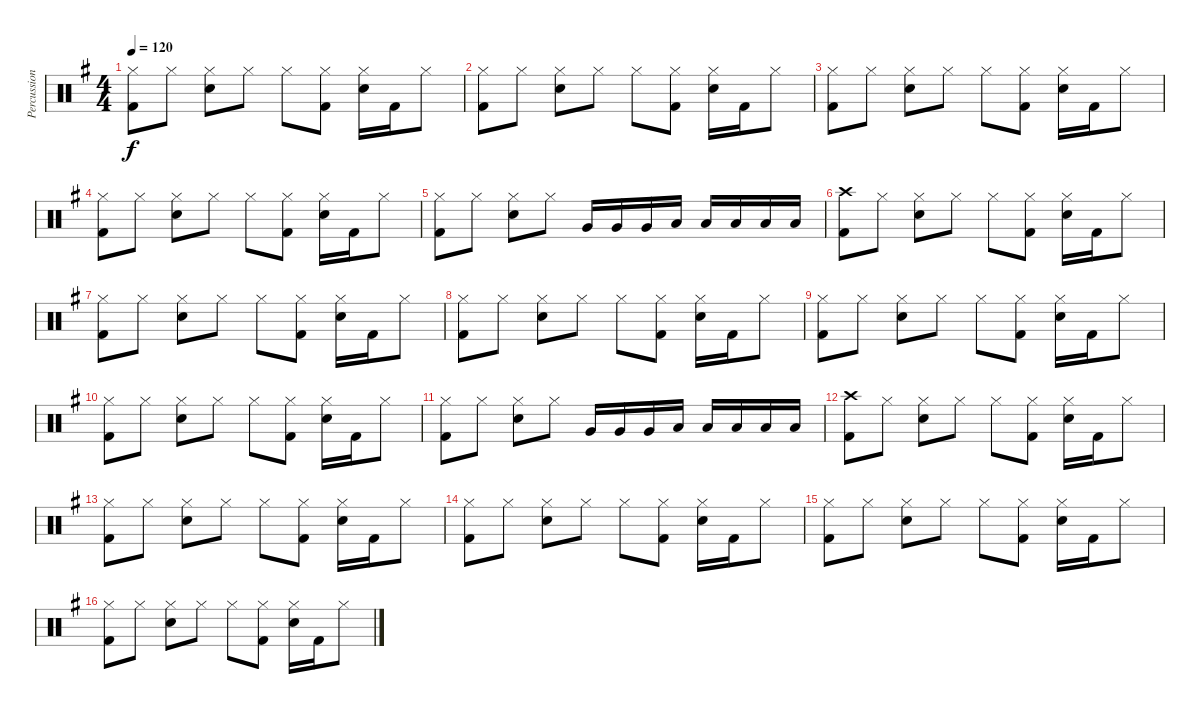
\track ("Percussions" "Percussion") {instrument percussion}
\staff {score}
\articulation defaults
\ts (4 4)
\tempo 120
\clef neutral
\ks eminor
("Hi-Hat (closed)" "Kick (hit) 2").8{dy f} "Hi-Hat (closed)".8 ("Hi-Hat (closed)" "Snare (hit) 2").8 "Hi-Hat (closed)".8 "Hi-Hat (closed)".8 ("Hi-Hat (closed)" "Kick (hit) 2").8 ("Hi-Hat (closed)" "Snare (hit) 2").16 "Kick (hit) 2".16 "Hi-Hat (closed)".8 |
("Hi-Hat (closed)" "Kick (hit) 2").8 "Hi-Hat (closed)".8 ("Hi-Hat (closed)" "Snare (hit) 2").8 "Hi-Hat (closed)".8 "Hi-Hat (closed)".8 ("Hi-Hat (closed)" "Kick (hit) 2").8 ("Hi-Hat (closed)" "Snare (hit) 2").16 "Kick (hit) 2".16 "Hi-Hat (closed)".8 |
("Hi-Hat (closed)" "Kick (hit) 2").8 "Hi-Hat (closed)".8 ("Hi-Hat (closed)" "Snare (hit) 2").8 "Hi-Hat (closed)".8 "Hi-Hat (closed)".8 ("Hi-Hat (closed)" "Kick (hit) 2").8 ("Hi-Hat (closed)" "Snare (hit) 2").16 "Kick (hit) 2".16 "Hi-Hat (closed)".8 |
("Hi-Hat (closed)" "Kick (hit) 2").8 "Hi-Hat (closed)".8 ("Hi-Hat (closed)" "Snare (hit) 2").8 "Hi-Hat (closed)".8 "Hi-Hat (closed)".8 ("Hi-Hat (closed)" "Kick (hit) 2").8 ("Hi-Hat (closed)" "Snare (hit) 2").16 "Kick (hit) 2".16 "Hi-Hat (closed)".8 |
("Hi-Hat (closed)" "Kick (hit) 2").8 "Hi-Hat (closed)".8 ("Hi-Hat (closed)" "Snare (hit) 2").8 "Hi-Hat (closed)".8 "Very Low Tom (hit)".16 "Very Low Tom (hit)".16 "Very Low Tom (hit)".16 "Low Tom (hit)".16 "Low Tom (hit)".16 "Low Tom (hit)".16 "Low Floor Tom (hit)".16 "Low Floor Tom (hit)".16 |
("Crash high (hit)" "Kick (hit) 2").8 "Hi-Hat (closed)".8 ("Hi-Hat (closed)" "Snare (hit) 2").8 "Hi-Hat (closed)".8 "Hi-Hat (closed)".8 ("Hi-Hat (closed)" "Kick (hit) 2").8 ("Hi-Hat (closed)" "Snare (hit) 2").16 "Kick (hit) 2".16 "Hi-Hat (closed)".8 |
("Hi-Hat (closed)" "Kick (hit) 2").8 "Hi-Hat (closed)".8 ("Hi-Hat (closed)" "Snare (hit) 2").8 "Hi-Hat (closed)".8 "Hi-Hat (closed)".8 ("Hi-Hat (closed)" "Kick (hit) 2").8 ("Hi-Hat (closed)" "Snare (hit) 2").16 "Kick (hit) 2".16 "Hi-Hat (closed)".8 |
("Hi-Hat (closed)" "Kick (hit) 2").8 "Hi-Hat (closed)".8 ("Hi-Hat (closed)" "Snare (hit) 2").8 "Hi-Hat (closed)".8 "Hi-Hat (closed)".8 ("Hi-Hat (closed)" "Kick (hit) 2").8 ("Hi-Hat (closed)" "Snare (hit) 2").16 "Kick (hit) 2".16 "Hi-Hat (closed)".8 |
("Hi-Hat (closed)" "Kick (hit) 2").8 "Hi-Hat (closed)".8 ("Hi-Hat (closed)" "Snare (hit) 2").8 "Hi-Hat (closed)".8 "Hi-Hat (closed)".8 ("Hi-Hat (closed)" "Kick (hit) 2").8 ("Hi-Hat (closed)" "Snare (hit) 2").16 "Kick (hit) 2".16 "Hi-Hat (closed)".8 |
("Hi-Hat (closed)" "Kick (hit) 2").8 "Hi-Hat (closed)".8 ("Hi-Hat (closed)" "Snare (hit) 2").8 "Hi-Hat (closed)".8 "Hi-Hat (closed)".8 ("Hi-Hat (closed)" "Kick (hit) 2").8 ("Hi-Hat (closed)" "Snare (hit) 2").16 "Kick (hit) 2".16 "Hi-Hat (closed)".8 |
("Hi-Hat (closed)" "Kick (hit) 2").8 "Hi-Hat (closed)".8 ("Hi-Hat (closed)" "Snare (hit) 2").8 "Hi-Hat (closed)".8 "Very Low Tom (hit)".16 "Very Low Tom (hit)".16 "Very Low Tom (hit)".16 "Low Tom (hit)".16 "Low Tom (hit)".16 "Low Tom (hit)".16 "Low Floor Tom (hit)".16 "Low Floor Tom (hit)".16 |
("Crash high (hit)" "Kick (hit) 2").8 "Hi-Hat (closed)".8 ("Hi-Hat (closed)" "Snare (hit) 2").8 "Hi-Hat (closed)".8 "Hi-Hat (closed)".8 ("Hi-Hat (closed)" "Kick (hit) 2").8 ("Hi-Hat (closed)" "Snare (hit) 2").16 "Kick (hit) 2".16 "Hi-Hat (closed)".8 |
("Hi-Hat (closed)" "Kick (hit) 2").8 "Hi-Hat (closed)".8 ("Hi-Hat (closed)" "Snare (hit) 2").8 "Hi-Hat (closed)".8 "Hi-Hat (closed)".8 ("Hi-Hat (closed)" "Kick (hit) 2").8 ("Hi-Hat (closed)" "Snare (hit) 2").16 "Kick (hit) 2".16 "Hi-Hat (closed)".8 |
("Hi-Hat (closed)" "Kick (hit) 2").8 "Hi-Hat (closed)".8 ("Hi-Hat (closed)" "Snare (hit) 2").8 "Hi-Hat (closed)".8 "Hi-Hat (closed)".8 ("Hi-Hat (closed)" "Kick (hit) 2").8 ("Hi-Hat (closed)" "Snare (hit) 2").16 "Kick (hit) 2".16 "Hi-Hat (closed)".8 |
("Hi-Hat (closed)" "Kick (hit) 2").8 "Hi-Hat (closed)".8 ("Hi-Hat (closed)" "Snare (hit) 2").8 "Hi-Hat (closed)".8 "Hi-Hat (closed)".8 ("Hi-Hat (closed)" "Kick (hit) 2").8 ("Hi-Hat (closed)" "Snare (hit) 2").16 "Kick (hit) 2".16 "Hi-Hat (closed)".8 |
("Hi-Hat (closed)" "Kick (hit) 2").8 "Hi-Hat (closed)".8 ("Hi-Hat (closed)" "Snare (hit) 2").8 "Hi-Hat (closed)".8 "Hi-Hat (closed)".8 ("Hi-Hat (closed)" "Kick (hit) 2").8 ("Hi-Hat (closed)" "Snare (hit) 2").16 "Kick (hit) 2".16 "Hi-Hat (closed)".8
